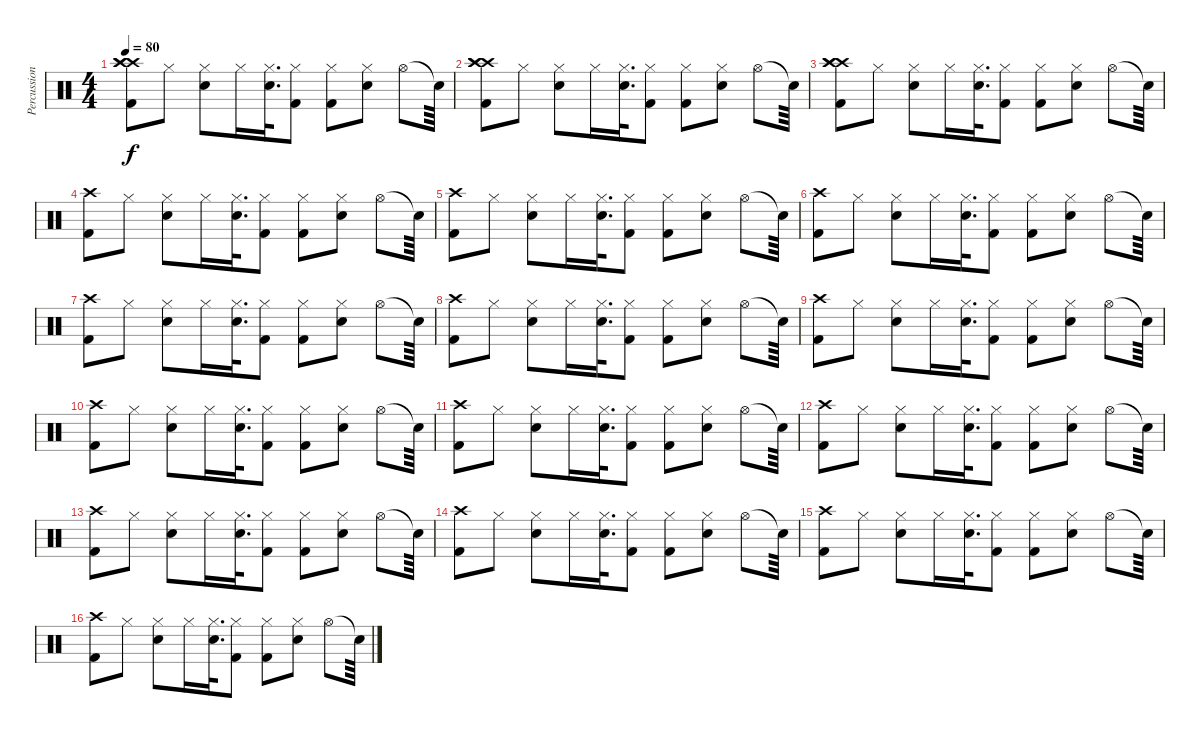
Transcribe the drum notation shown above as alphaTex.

\track ("Percussion" "Percussion") {instrument percussion}
\staff {score}
\articulation defaults
\ts (4 4)
\tempo 80
\clef neutral
\ks c
("Crash high (hit)" "Crash high (hit)" "Crash high (hit)" "Kick (hit) 2").8{dy f} "Hi-Hat (closed)".8 ("Hi-Hat (closed)" "Snare (hit) 2").8 "Hi-Hat (closed)".16 ("Hi-Hat (closed)" "Snare (hit) 2").32{d} ("Hi-Hat (closed)" "Kick (hit) 2").8 ("Hi-Hat (closed)" "Kick (hit) 2").8 ("Hi-Hat (closed)" "Snare (hit) 2").8 "Hi-Hat (open)".8 "Snare (hit)"{t}.64 |
("Crash high (hit)" "Crash high (hit)" "Crash high (hit)" "Kick (hit) 2").8 "Hi-Hat (closed)".8 ("Hi-Hat (closed)" "Snare (hit) 2").8 "Hi-Hat (closed)".16 ("Hi-Hat (closed)" "Snare (hit) 2").32{d} ("Hi-Hat (closed)" "Kick (hit) 2").8 ("Hi-Hat (closed)" "Kick (hit) 2").8 ("Hi-Hat (closed)" "Snare (hit) 2").8 "Hi-Hat (open)".8 "Snare (hit)"{t}.64 |
("Crash high (hit)" "Crash high (hit)" "Crash high (hit)" "Kick (hit) 2").8 "Hi-Hat (closed)".8 ("Hi-Hat (closed)" "Snare (hit) 2").8 "Hi-Hat (closed)".16 ("Hi-Hat (closed)" "Snare (hit) 2").32{d} ("Hi-Hat (closed)" "Kick (hit) 2").8 ("Hi-Hat (closed)" "Kick (hit) 2").8 ("Hi-Hat (closed)" "Snare (hit) 2").8 "Hi-Hat (open)".8 "Snare (hit)"{t}.64 |
("Crash high (hit)" "Kick (hit) 2").8 "Hi-Hat (closed)".8 ("Hi-Hat (closed)" "Snare (hit) 2").8 "Hi-Hat (closed)".16 ("Hi-Hat (closed)" "Snare (hit) 2").32{d} ("Hi-Hat (closed)" "Kick (hit) 2").8 ("Hi-Hat (closed)" "Kick (hit) 2").8 ("Hi-Hat (closed)" "Snare (hit) 2").8 "Hi-Hat (open)".8 "Snare (hit)"{t}.64 |
("Crash high (hit)" "Kick (hit) 2").8 "Hi-Hat (closed)".8 ("Hi-Hat (closed)" "Snare (hit) 2").8 "Hi-Hat (closed)".16 ("Hi-Hat (closed)" "Snare (hit) 2").32{d} ("Hi-Hat (closed)" "Kick (hit) 2").8 ("Hi-Hat (closed)" "Kick (hit) 2").8 ("Hi-Hat (closed)" "Snare (hit) 2").8 "Hi-Hat (open)".8 "Snare (hit)"{t}.64 |
("Crash high (hit)" "Kick (hit) 2").8 "Hi-Hat (closed)".8 ("Hi-Hat (closed)" "Snare (hit) 2").8 "Hi-Hat (closed)".16 ("Hi-Hat (closed)" "Snare (hit) 2").32{d} ("Hi-Hat (closed)" "Kick (hit) 2").8 ("Hi-Hat (closed)" "Kick (hit) 2").8 ("Hi-Hat (closed)" "Snare (hit) 2").8 "Hi-Hat (open)".8 "Snare (hit)"{t}.64 |
("Crash high (hit)" "Kick (hit) 2").8 "Hi-Hat (closed)".8 ("Hi-Hat (closed)" "Snare (hit) 2").8 "Hi-Hat (closed)".16 ("Hi-Hat (closed)" "Snare (hit) 2").32{d} ("Hi-Hat (closed)" "Kick (hit) 2").8 ("Hi-Hat (closed)" "Kick (hit) 2").8 ("Hi-Hat (closed)" "Snare (hit) 2").8 "Hi-Hat (open)".8 "Snare (hit)"{t}.64 |
("Crash high (hit)" "Kick (hit) 2").8 "Hi-Hat (closed)".8 ("Hi-Hat (closed)" "Snare (hit) 2").8 "Hi-Hat (closed)".16 ("Hi-Hat (closed)" "Snare (hit) 2").32{d} ("Hi-Hat (closed)" "Kick (hit) 2").8 ("Hi-Hat (closed)" "Kick (hit) 2").8 ("Hi-Hat (closed)" "Snare (hit) 2").8 "Hi-Hat (open)".8 "Snare (hit)"{t}.64 |
("Crash high (hit)" "Kick (hit) 2").8 "Hi-Hat (closed)".8 ("Hi-Hat (closed)" "Snare (hit) 2").8 "Hi-Hat (closed)".16 ("Hi-Hat (closed)" "Snare (hit) 2").32{d} ("Hi-Hat (closed)" "Kick (hit) 2").8 ("Hi-Hat (closed)" "Kick (hit) 2").8 ("Hi-Hat (closed)" "Snare (hit) 2").8 "Hi-Hat (open)".8 "Snare (hit)"{t}.64 |
("Crash high (hit)" "Kick (hit) 2").8 "Hi-Hat (closed)".8 ("Hi-Hat (closed)" "Snare (hit) 2").8 "Hi-Hat (closed)".16 ("Hi-Hat (closed)" "Snare (hit) 2").32{d} ("Hi-Hat (closed)" "Kick (hit) 2").8 ("Hi-Hat (closed)" "Kick (hit) 2").8 ("Hi-Hat (closed)" "Snare (hit) 2").8 "Hi-Hat (open)".8 "Snare (hit)"{t}.64 |
("Crash high (hit)" "Kick (hit) 2").8 "Hi-Hat (closed)".8 ("Hi-Hat (closed)" "Snare (hit) 2").8 "Hi-Hat (closed)".16 ("Hi-Hat (closed)" "Snare (hit) 2").32{d} ("Hi-Hat (closed)" "Kick (hit) 2").8 ("Hi-Hat (closed)" "Kick (hit) 2").8 ("Hi-Hat (closed)" "Snare (hit) 2").8 "Hi-Hat (open)".8 "Snare (hit)"{t}.64 |
("Crash high (hit)" "Kick (hit) 2").8 "Hi-Hat (closed)".8 ("Hi-Hat (closed)" "Snare (hit) 2").8 "Hi-Hat (closed)".16 ("Hi-Hat (closed)" "Snare (hit) 2").32{d} ("Hi-Hat (closed)" "Kick (hit) 2").8 ("Hi-Hat (closed)" "Kick (hit) 2").8 ("Hi-Hat (closed)" "Snare (hit) 2").8 "Hi-Hat (open)".8 "Snare (hit)"{t}.64 |
("Crash high (hit)" "Kick (hit) 2").8 "Hi-Hat (closed)".8 ("Hi-Hat (closed)" "Snare (hit) 2").8 "Hi-Hat (closed)".16 ("Hi-Hat (closed)" "Snare (hit) 2").32{d} ("Hi-Hat (closed)" "Kick (hit) 2").8 ("Hi-Hat (closed)" "Kick (hit) 2").8 ("Hi-Hat (closed)" "Snare (hit) 2").8 "Hi-Hat (open)".8 "Snare (hit)"{t}.64 |
("Crash high (hit)" "Kick (hit) 2").8 "Hi-Hat (closed)".8 ("Hi-Hat (closed)" "Snare (hit) 2").8 "Hi-Hat (closed)".16 ("Hi-Hat (closed)" "Snare (hit) 2").32{d} ("Hi-Hat (closed)" "Kick (hit) 2").8 ("Hi-Hat (closed)" "Kick (hit) 2").8 ("Hi-Hat (closed)" "Snare (hit) 2").8 "Hi-Hat (open)".8 "Snare (hit)"{t}.64 |
("Crash high (hit)" "Kick (hit) 2").8 "Hi-Hat (closed)".8 ("Hi-Hat (closed)" "Snare (hit) 2").8 "Hi-Hat (closed)".16 ("Hi-Hat (closed)" "Snare (hit) 2").32{d} ("Hi-Hat (closed)" "Kick (hit) 2").8 ("Hi-Hat (closed)" "Kick (hit) 2").8 ("Hi-Hat (closed)" "Snare (hit) 2").8 "Hi-Hat (open)".8 "Snare (hit)"{t}.64 |
("Crash high (hit)" "Kick (hit) 2").8 "Hi-Hat (closed)".8 ("Hi-Hat (closed)" "Snare (hit) 2").8 "Hi-Hat (closed)".16 ("Hi-Hat (closed)" "Snare (hit) 2").32{d} ("Hi-Hat (closed)" "Kick (hit) 2").8 ("Hi-Hat (closed)" "Kick (hit) 2").8 ("Hi-Hat (closed)" "Snare (hit) 2").8 "Hi-Hat (open)".8 "Snare (hit)"{t}.64
